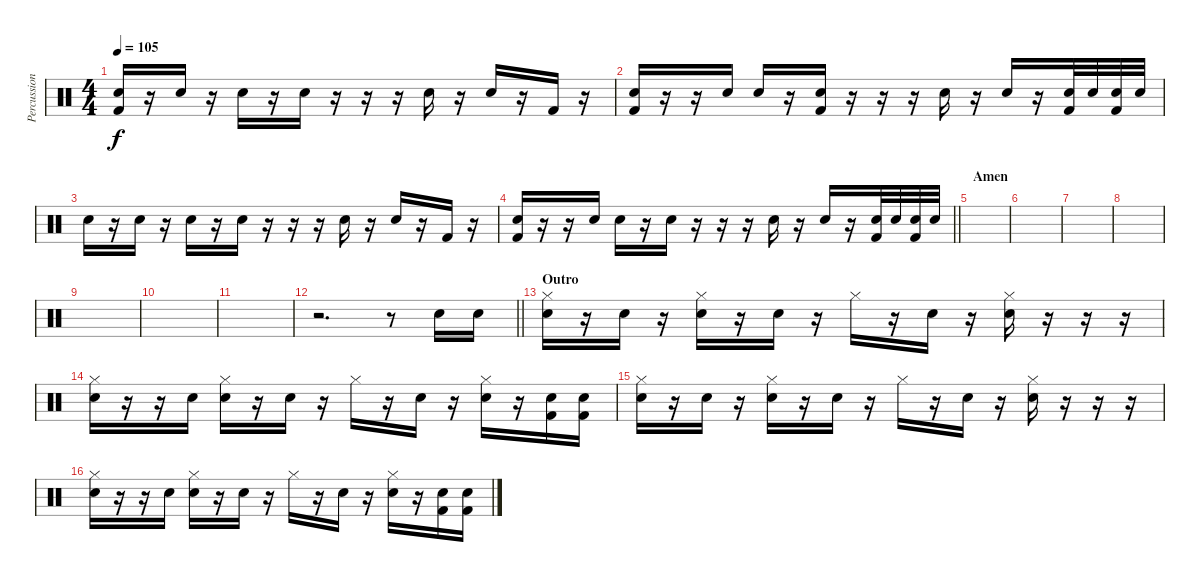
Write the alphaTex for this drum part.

\track ("Percussion" "Percussion") {instrument percussion}
\staff {score}
\articulation defaults
\ts (4 4)
\tempo 105
\clef neutral
\ks c
("Snare (hit) 2" "Kick (hit) 2").16{dy f} r.16 "Snare (hit) 2".16 r.16 "Snare (hit) 2".16 r.16 "Snare (hit) 2".16 r.16 r.16 r.16 "Snare (hit) 2".16 r.16 "Snare (hit) 2".16 r.16 "Kick (hit) 2".16 r.16 |
("Snare (hit) 2" "Kick (hit) 2").16 r.16 r.16 "Snare (hit) 2".16 "Snare (hit) 2".16 r.16 ("Snare (hit) 2" "Kick (hit) 2").16 r.16 r.16 r.16 "Snare (hit) 2".16 r.16 "Snare (hit) 2".16 r.16 ("Snare (hit) 2" "Kick (hit) 2").32 "Snare (hit) 2".32 ("Snare (hit) 2" "Kick (hit) 2").32 "Snare (hit) 2".32 |
"Snare (hit) 2".16 r.16 "Snare (hit) 2".16 r.16 "Snare (hit) 2".16 r.16 "Snare (hit) 2".16 r.16 r.16 r.16 "Snare (hit) 2".16 r.16 "Snare (hit) 2".16 r.16 "Kick (hit) 2".16 r.16 |
\barLineRight lightlight
("Snare (hit) 2" "Kick (hit) 2").16 r.16 r.16 "Snare (hit) 2".16 "Snare (hit) 2".16 r.16 "Snare (hit) 2".16 r.16 r.16 r.16 "Snare (hit) 2".16 r.16 "Snare (hit) 2".16 r.16 ("Snare (hit) 2" "Kick (hit) 2").32 "Snare (hit) 2".32 ("Snare (hit) 2" "Kick (hit) 2").32 "Snare (hit) 2".32 |
\section ("" "Amen")
|
|
|
|
|
|
|
\barLineRight lightlight
r.2{d} r.8 "Snare (hit) 2".16 "Snare (hit) 2".16 |
\section ("" "Outro")
("Hi-Hat (closed)" "Snare (hit) 2").16 r.16 "Snare (hit) 2".16 r.16 ("Hi-Hat (closed)" "Snare (hit) 2").16 r.16 "Snare (hit) 2".16 r.16 "Hi-Hat (closed)".16 r.16 "Snare (hit) 2".16 r.16 ("Hi-Hat (closed)" "Snare (hit) 2").16 r.16 r.16 r.16 |
("Hi-Hat (closed)" "Snare (hit) 2").16 r.16 r.16 "Snare (hit) 2".16 ("Hi-Hat (closed)" "Snare (hit) 2").16 r.16 "Snare (hit) 2".16 r.16 "Hi-Hat (closed)".16 r.16 "Snare (hit) 2".16 r.16 ("Hi-Hat (closed)" "Snare (hit) 2").16 r.16 ("Snare (hit) 2" "Kick (hit) 2").16 ("Snare (hit) 2" "Kick (hit) 2").16 |
("Hi-Hat (closed)" "Snare (hit) 2").16 r.16 "Snare (hit) 2".16 r.16 ("Hi-Hat (closed)" "Snare (hit) 2").16 r.16 "Snare (hit) 2".16 r.16 "Hi-Hat (closed)".16 r.16 "Snare (hit) 2".16 r.16 ("Hi-Hat (closed)" "Snare (hit) 2").16 r.16 r.16 r.16 |
("Hi-Hat (closed)" "Snare (hit) 2").16 r.16 r.16 "Snare (hit) 2".16 ("Hi-Hat (closed)" "Snare (hit) 2").16 r.16 "Snare (hit) 2".16 r.16 "Hi-Hat (closed)".16 r.16 "Snare (hit) 2".16 r.16 ("Hi-Hat (closed)" "Snare (hit) 2").16 r.16 ("Snare (hit) 2" "Kick (hit) 2").16 ("Snare (hit) 2" "Kick (hit) 2").16
